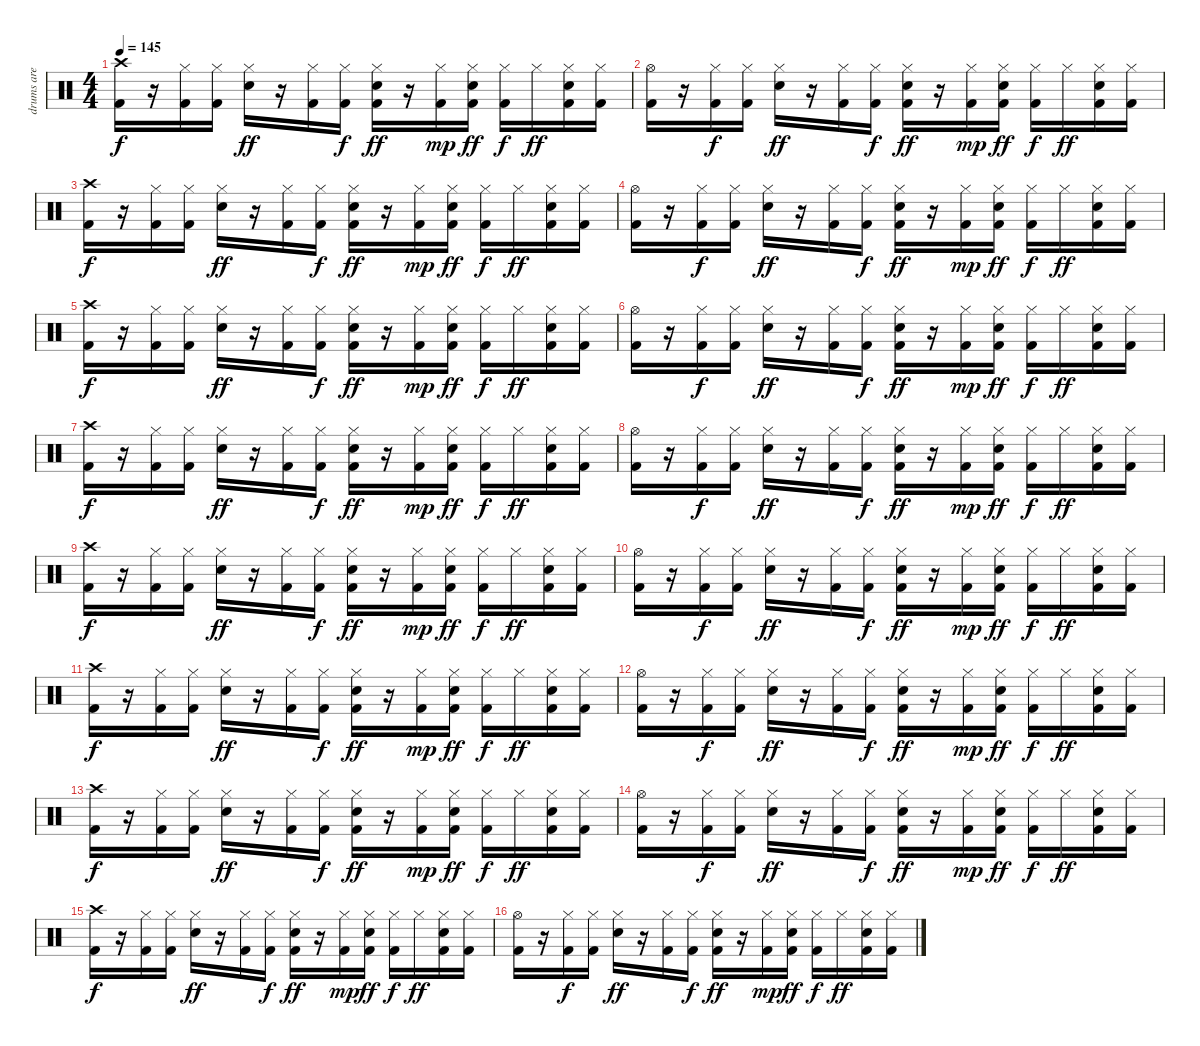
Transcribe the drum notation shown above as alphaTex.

\track ("drums are cool   >.<" "drums are ") {instrument percussion}
\staff {score}
\articulation defaults
\ts (4 4)
\tempo 145
\clef neutral
\ks c
("Crash high (hit)" "Kick (hit) 2").16{dy f} r.16 ("Hi-Hat (closed)" "Kick (hit) 2").16 ("Hi-Hat (closed)" "Kick (hit) 2").16 ("Hi-Hat (closed)" "Snare (hit)").16{dy ff} r.16 ("Hi-Hat (closed)" "Kick (hit) 2").16 ("Hi-Hat (closed)" "Kick (hit) 2").16{dy f} ("Hi-Hat (closed)" "Snare (hit) 2" "Kick (hit) 2").16{dy ff} r.16 ("Hi-Hat (closed)" "Kick (hit) 2").16{dy mp} ("Hi-Hat (closed)" "Snare (hit) 2" "Kick (hit) 2").16{dy ff} ("Hi-Hat (closed)" "Kick (hit) 2").16{dy f} "Hi-Hat (closed)".16{dy ff} ("Hi-Hat (closed)" "Snare (hit) 2" "Kick (hit) 2").16 ("Hi-Hat (closed)" "Kick (hit) 2").16 |
("Hi-Hat (open)" "Kick (hit) 2").16 r.16 ("Hi-Hat (closed)" "Kick (hit) 2").16{dy f} ("Hi-Hat (closed)" "Kick (hit) 2").16 ("Hi-Hat (closed)" "Snare (hit)").16{dy ff} r.16 ("Hi-Hat (closed)" "Kick (hit) 2").16 ("Hi-Hat (closed)" "Kick (hit) 2").16{dy f} ("Hi-Hat (closed)" "Snare (hit) 2" "Kick (hit) 2").16{dy ff} r.16 ("Hi-Hat (closed)" "Kick (hit) 2").16{dy mp} ("Hi-Hat (closed)" "Snare (hit) 2" "Kick (hit) 2").16{dy ff} ("Hi-Hat (closed)" "Kick (hit) 2").16{dy f} "Hi-Hat (closed)".16{dy ff} ("Hi-Hat (closed)" "Snare (hit) 2" "Kick (hit) 2").16 ("Hi-Hat (closed)" "Kick (hit) 2").16 |
("Crash high (hit)" "Kick (hit) 2").16{dy f} r.16 ("Hi-Hat (closed)" "Kick (hit) 2").16 ("Hi-Hat (closed)" "Kick (hit) 2").16 ("Hi-Hat (closed)" "Snare (hit)").16{dy ff} r.16 ("Hi-Hat (closed)" "Kick (hit) 2").16 ("Hi-Hat (closed)" "Kick (hit) 2").16{dy f} ("Hi-Hat (closed)" "Snare (hit) 2" "Kick (hit) 2").16{dy ff} r.16 ("Hi-Hat (closed)" "Kick (hit) 2").16{dy mp} ("Hi-Hat (closed)" "Snare (hit) 2" "Kick (hit) 2").16{dy ff} ("Hi-Hat (closed)" "Kick (hit) 2").16{dy f} "Hi-Hat (closed)".16{dy ff} ("Hi-Hat (closed)" "Snare (hit) 2" "Kick (hit) 2").16 ("Hi-Hat (closed)" "Kick (hit) 2").16 |
("Hi-Hat (open)" "Kick (hit) 2").16 r.16 ("Hi-Hat (closed)" "Kick (hit) 2").16{dy f} ("Hi-Hat (closed)" "Kick (hit) 2").16 ("Hi-Hat (closed)" "Snare (hit)").16{dy ff} r.16 ("Hi-Hat (closed)" "Kick (hit) 2").16 ("Hi-Hat (closed)" "Kick (hit) 2").16{dy f} ("Hi-Hat (closed)" "Snare (hit) 2" "Kick (hit) 2").16{dy ff} r.16 ("Hi-Hat (closed)" "Kick (hit) 2").16{dy mp} ("Hi-Hat (closed)" "Snare (hit) 2" "Kick (hit) 2").16{dy ff} ("Hi-Hat (closed)" "Kick (hit) 2").16{dy f} "Hi-Hat (closed)".16{dy ff} ("Hi-Hat (closed)" "Snare (hit) 2" "Kick (hit) 2").16 ("Hi-Hat (closed)" "Kick (hit) 2").16 |
("Crash high (hit)" "Kick (hit) 2").16{dy f} r.16 ("Hi-Hat (closed)" "Kick (hit) 2").16 ("Hi-Hat (closed)" "Kick (hit) 2").16 ("Hi-Hat (closed)" "Snare (hit)").16{dy ff} r.16 ("Hi-Hat (closed)" "Kick (hit) 2").16 ("Hi-Hat (closed)" "Kick (hit) 2").16{dy f} ("Hi-Hat (closed)" "Snare (hit) 2" "Kick (hit) 2").16{dy ff} r.16 ("Hi-Hat (closed)" "Kick (hit) 2").16{dy mp} ("Hi-Hat (closed)" "Snare (hit) 2" "Kick (hit) 2").16{dy ff} ("Hi-Hat (closed)" "Kick (hit) 2").16{dy f} "Hi-Hat (closed)".16{dy ff} ("Hi-Hat (closed)" "Snare (hit) 2" "Kick (hit) 2").16 ("Hi-Hat (closed)" "Kick (hit) 2").16 |
("Hi-Hat (open)" "Kick (hit) 2").16 r.16 ("Hi-Hat (closed)" "Kick (hit) 2").16{dy f} ("Hi-Hat (closed)" "Kick (hit) 2").16 ("Hi-Hat (closed)" "Snare (hit)").16{dy ff} r.16 ("Hi-Hat (closed)" "Kick (hit) 2").16 ("Hi-Hat (closed)" "Kick (hit) 2").16{dy f} ("Hi-Hat (closed)" "Snare (hit) 2" "Kick (hit) 2").16{dy ff} r.16 ("Hi-Hat (closed)" "Kick (hit) 2").16{dy mp} ("Hi-Hat (closed)" "Snare (hit) 2" "Kick (hit) 2").16{dy ff} ("Hi-Hat (closed)" "Kick (hit) 2").16{dy f} "Hi-Hat (closed)".16{dy ff} ("Hi-Hat (closed)" "Snare (hit) 2" "Kick (hit) 2").16 ("Hi-Hat (closed)" "Kick (hit) 2").16 |
("Crash high (hit)" "Kick (hit) 2").16{dy f} r.16 ("Hi-Hat (closed)" "Kick (hit) 2").16 ("Hi-Hat (closed)" "Kick (hit) 2").16 ("Hi-Hat (closed)" "Snare (hit)").16{dy ff} r.16 ("Hi-Hat (closed)" "Kick (hit) 2").16 ("Hi-Hat (closed)" "Kick (hit) 2").16{dy f} ("Hi-Hat (closed)" "Snare (hit) 2" "Kick (hit) 2").16{dy ff} r.16 ("Hi-Hat (closed)" "Kick (hit) 2").16{dy mp} ("Hi-Hat (closed)" "Snare (hit) 2" "Kick (hit) 2").16{dy ff} ("Hi-Hat (closed)" "Kick (hit) 2").16{dy f} "Hi-Hat (closed)".16{dy ff} ("Hi-Hat (closed)" "Snare (hit) 2" "Kick (hit) 2").16 ("Hi-Hat (closed)" "Kick (hit) 2").16 |
("Hi-Hat (open)" "Kick (hit) 2").16 r.16 ("Hi-Hat (closed)" "Kick (hit) 2").16{dy f} ("Hi-Hat (closed)" "Kick (hit) 2").16 ("Hi-Hat (closed)" "Snare (hit)").16{dy ff} r.16 ("Hi-Hat (closed)" "Kick (hit) 2").16 ("Hi-Hat (closed)" "Kick (hit) 2").16{dy f} ("Hi-Hat (closed)" "Snare (hit) 2" "Kick (hit) 2").16{dy ff} r.16 ("Hi-Hat (closed)" "Kick (hit) 2").16{dy mp} ("Hi-Hat (closed)" "Snare (hit) 2" "Kick (hit) 2").16{dy ff} ("Hi-Hat (closed)" "Kick (hit) 2").16{dy f} "Hi-Hat (closed)".16{dy ff} ("Hi-Hat (closed)" "Snare (hit) 2" "Kick (hit) 2").16 ("Hi-Hat (closed)" "Kick (hit) 2").16 |
("Crash high (hit)" "Kick (hit) 2").16{dy f} r.16 ("Hi-Hat (closed)" "Kick (hit) 2").16 ("Hi-Hat (closed)" "Kick (hit) 2").16 ("Hi-Hat (closed)" "Snare (hit)").16{dy ff} r.16 ("Hi-Hat (closed)" "Kick (hit) 2").16 ("Hi-Hat (closed)" "Kick (hit) 2").16{dy f} ("Hi-Hat (closed)" "Snare (hit) 2" "Kick (hit) 2").16{dy ff} r.16 ("Hi-Hat (closed)" "Kick (hit) 2").16{dy mp} ("Hi-Hat (closed)" "Snare (hit) 2" "Kick (hit) 2").16{dy ff} ("Hi-Hat (closed)" "Kick (hit) 2").16{dy f} "Hi-Hat (closed)".16{dy ff} ("Hi-Hat (closed)" "Snare (hit) 2" "Kick (hit) 2").16 ("Hi-Hat (closed)" "Kick (hit) 2").16 |
("Hi-Hat (open)" "Kick (hit) 2").16 r.16 ("Hi-Hat (closed)" "Kick (hit) 2").16{dy f} ("Hi-Hat (closed)" "Kick (hit) 2").16 ("Hi-Hat (closed)" "Snare (hit)").16{dy ff} r.16 ("Hi-Hat (closed)" "Kick (hit) 2").16 ("Hi-Hat (closed)" "Kick (hit) 2").16{dy f} ("Hi-Hat (closed)" "Snare (hit) 2" "Kick (hit) 2").16{dy ff} r.16 ("Hi-Hat (closed)" "Kick (hit) 2").16{dy mp} ("Hi-Hat (closed)" "Snare (hit) 2" "Kick (hit) 2").16{dy ff} ("Hi-Hat (closed)" "Kick (hit) 2").16{dy f} "Hi-Hat (closed)".16{dy ff} ("Hi-Hat (closed)" "Snare (hit) 2" "Kick (hit) 2").16 ("Hi-Hat (closed)" "Kick (hit) 2").16 |
("Crash high (hit)" "Kick (hit) 2").16{dy f} r.16 ("Hi-Hat (closed)" "Kick (hit) 2").16 ("Hi-Hat (closed)" "Kick (hit) 2").16 ("Hi-Hat (closed)" "Snare (hit)").16{dy ff} r.16 ("Hi-Hat (closed)" "Kick (hit) 2").16 ("Hi-Hat (closed)" "Kick (hit) 2").16{dy f} ("Hi-Hat (closed)" "Snare (hit) 2" "Kick (hit) 2").16{dy ff} r.16 ("Hi-Hat (closed)" "Kick (hit) 2").16{dy mp} ("Hi-Hat (closed)" "Snare (hit) 2" "Kick (hit) 2").16{dy ff} ("Hi-Hat (closed)" "Kick (hit) 2").16{dy f} "Hi-Hat (closed)".16{dy ff} ("Hi-Hat (closed)" "Snare (hit) 2" "Kick (hit) 2").16 ("Hi-Hat (closed)" "Kick (hit) 2").16 |
("Hi-Hat (open)" "Kick (hit) 2").16 r.16 ("Hi-Hat (closed)" "Kick (hit) 2").16{dy f} ("Hi-Hat (closed)" "Kick (hit) 2").16 ("Hi-Hat (closed)" "Snare (hit)").16{dy ff} r.16 ("Hi-Hat (closed)" "Kick (hit) 2").16 ("Hi-Hat (closed)" "Kick (hit) 2").16{dy f} ("Hi-Hat (closed)" "Snare (hit) 2" "Kick (hit) 2").16{dy ff} r.16 ("Hi-Hat (closed)" "Kick (hit) 2").16{dy mp} ("Hi-Hat (closed)" "Snare (hit) 2" "Kick (hit) 2").16{dy ff} ("Hi-Hat (closed)" "Kick (hit) 2").16{dy f} "Hi-Hat (closed)".16{dy ff} ("Hi-Hat (closed)" "Snare (hit) 2" "Kick (hit) 2").16 ("Hi-Hat (closed)" "Kick (hit) 2").16 |
("Crash high (hit)" "Kick (hit) 2").16{dy f} r.16 ("Hi-Hat (closed)" "Kick (hit) 2").16 ("Hi-Hat (closed)" "Kick (hit) 2").16 ("Hi-Hat (closed)" "Snare (hit)").16{dy ff} r.16 ("Hi-Hat (closed)" "Kick (hit) 2").16 ("Hi-Hat (closed)" "Kick (hit) 2").16{dy f} ("Hi-Hat (closed)" "Snare (hit) 2" "Kick (hit) 2").16{dy ff} r.16 ("Hi-Hat (closed)" "Kick (hit) 2").16{dy mp} ("Hi-Hat (closed)" "Snare (hit) 2" "Kick (hit) 2").16{dy ff} ("Hi-Hat (closed)" "Kick (hit) 2").16{dy f} "Hi-Hat (closed)".16{dy ff} ("Hi-Hat (closed)" "Snare (hit) 2" "Kick (hit) 2").16 ("Hi-Hat (closed)" "Kick (hit) 2").16 |
("Hi-Hat (open)" "Kick (hit) 2").16 r.16 ("Hi-Hat (closed)" "Kick (hit) 2").16{dy f} ("Hi-Hat (closed)" "Kick (hit) 2").16 ("Hi-Hat (closed)" "Snare (hit)").16{dy ff} r.16 ("Hi-Hat (closed)" "Kick (hit) 2").16 ("Hi-Hat (closed)" "Kick (hit) 2").16{dy f} ("Hi-Hat (closed)" "Snare (hit) 2" "Kick (hit) 2").16{dy ff} r.16 ("Hi-Hat (closed)" "Kick (hit) 2").16{dy mp} ("Hi-Hat (closed)" "Snare (hit) 2" "Kick (hit) 2").16{dy ff} ("Hi-Hat (closed)" "Kick (hit) 2").16{dy f} "Hi-Hat (closed)".16{dy ff} ("Hi-Hat (closed)" "Snare (hit) 2" "Kick (hit) 2").16 ("Hi-Hat (closed)" "Kick (hit) 2").16 |
("Crash high (hit)" "Kick (hit) 2").16{dy f} r.16 ("Hi-Hat (closed)" "Kick (hit) 2").16 ("Hi-Hat (closed)" "Kick (hit) 2").16 ("Hi-Hat (closed)" "Snare (hit)").16{dy ff} r.16 ("Hi-Hat (closed)" "Kick (hit) 2").16 ("Hi-Hat (closed)" "Kick (hit) 2").16{dy f} ("Hi-Hat (closed)" "Snare (hit) 2" "Kick (hit) 2").16{dy ff} r.16 ("Hi-Hat (closed)" "Kick (hit) 2").16{dy mp} ("Hi-Hat (closed)" "Snare (hit) 2" "Kick (hit) 2").16{dy ff} ("Hi-Hat (closed)" "Kick (hit) 2").16{dy f} "Hi-Hat (closed)".16{dy ff} ("Hi-Hat (closed)" "Snare (hit) 2" "Kick (hit) 2").16 ("Hi-Hat (closed)" "Kick (hit) 2").16 |
("Hi-Hat (open)" "Kick (hit) 2").16 r.16 ("Hi-Hat (closed)" "Kick (hit) 2").16{dy f} ("Hi-Hat (closed)" "Kick (hit) 2").16 ("Hi-Hat (closed)" "Snare (hit)").16{dy ff} r.16 ("Hi-Hat (closed)" "Kick (hit) 2").16 ("Hi-Hat (closed)" "Kick (hit) 2").16{dy f} ("Hi-Hat (closed)" "Snare (hit) 2" "Kick (hit) 2").16{dy ff} r.16 ("Hi-Hat (closed)" "Kick (hit) 2").16{dy mp} ("Hi-Hat (closed)" "Snare (hit) 2" "Kick (hit) 2").16{dy ff} ("Hi-Hat (closed)" "Kick (hit) 2").16{dy f} "Hi-Hat (closed)".16{dy ff} ("Hi-Hat (closed)" "Snare (hit) 2" "Kick (hit) 2").16 ("Hi-Hat (closed)" "Kick (hit) 2").16
